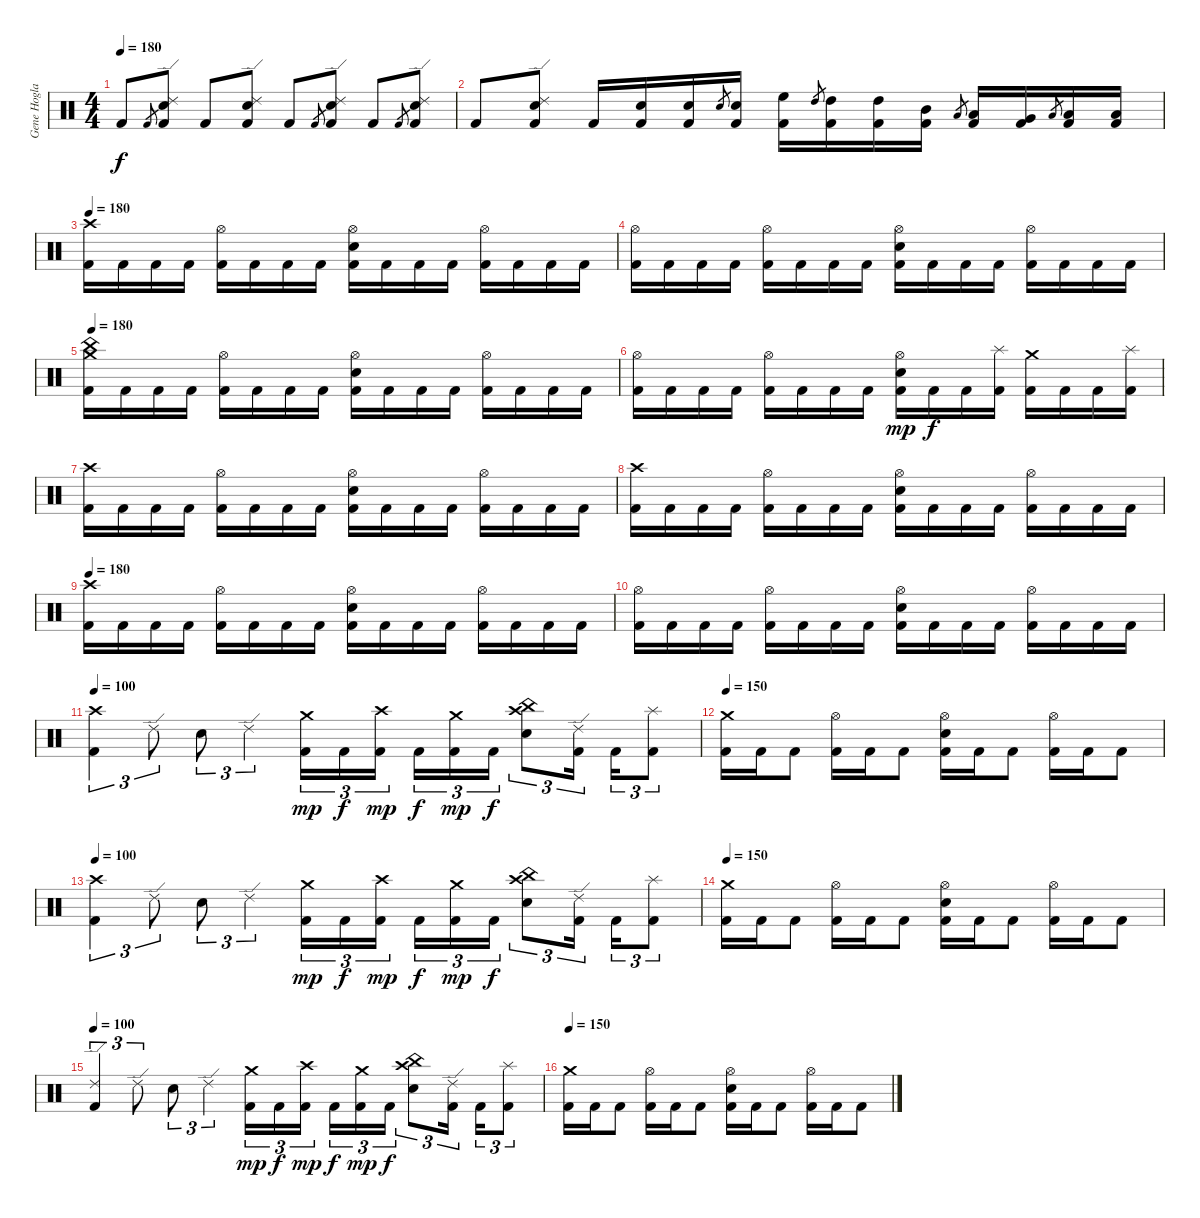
\track ("Gene Hoglan" "Gene Hogla") {instrument percussion}
\staff {score}
\articulation defaults
\ts (4 4)
\tempo 180
\clef neutral
\ks c "Kick (hit) 2".8{dy f} "Kick (hit) 2".8{gr}
("Kick (hit) 2" "Electric Snare (hit)" "Ride (edge) 2").8 "Kick (hit) 2".8 ("Kick (hit) 2" "Electric Snare (hit)" "Ride (edge) 2").8 "Kick (hit) 2".8 "Kick (hit) 2".8{gr} ("Kick (hit) 2" "Electric Snare (hit)" "Ride (edge) 2").8 "Kick (hit) 2".8 "Kick (hit) 2".8{gr} ("Kick (hit) 2" "Electric Snare (hit)" "Ride (edge) 2").8 |
"Kick (hit) 2".8 ("Kick (hit) 2" "Electric Snare (hit)" "Ride (edge) 2").8 "Kick (hit) 2".16 ("Kick (hit) 2" "Electric Snare (hit)").16 ("Kick (hit) 2" "Electric Snare (hit)").16 "Electric Snare (hit)".8{gr} ("Kick (hit) 2" "Electric Snare (hit)").16 ("Kick (hit) 2" "High Floor Tom (hit)").16 "High Tom (hit)".8{gr} ("Kick (hit) 2" "High Tom (hit)").16 ("Kick (hit) 2" "High Tom (hit)").16 ("Kick (hit) 2" "Mid Tom (hit)").16 "Low Tom (hit)".8{gr} ("Kick (hit) 2" "Low Tom (hit)").16 ("Kick (hit) 2" "Very Low Tom (hit)").16 "Low Floor Tom (hit)".8{gr} ("Kick (hit) 2" "Low Floor Tom (hit)").16 ("Kick (hit) 2" "Low Floor Tom (hit)").16 |
\tempo 180
("Kick (hit) 2" "Crash high (hit)").16 "Kick (hit) 2".16 "Kick (hit) 2".16 "Kick (hit) 2".16 ("Kick (hit) 2" "Hi-Hat (open)").16 "Kick (hit) 2".16 "Kick (hit) 2".16 "Kick (hit) 2".16 ("Kick (hit) 2" "Electric Snare (hit)" "Hi-Hat (open)").16 "Kick (hit) 2".16 "Kick (hit) 2".16 "Kick (hit) 2".16 ("Kick (hit) 2" "Hi-Hat (open)").16 "Kick (hit) 2".16 "Kick (hit) 2".16 "Kick (hit) 2".16 |
("Kick (hit) 2" "Hi-Hat (open)").16 "Kick (hit) 2".16 "Kick (hit) 2".16 "Kick (hit) 2".16 ("Kick (hit) 2" "Hi-Hat (open)").16 "Kick (hit) 2".16 "Kick (hit) 2".16 "Kick (hit) 2".16 ("Kick (hit) 2" "Electric Snare (hit)" "Hi-Hat (open)").16 "Kick (hit) 2".16 "Kick (hit) 2".16 "Kick (hit) 2".16 ("Kick (hit) 2" "Hi-Hat (open)").16 "Kick (hit) 2".16 "Kick (hit) 2".16 "Kick (hit) 2".16 |
\tempo 180
("Kick (hit) 2" "Crash medium (hit)" "China (hit)").16 "Kick (hit) 2".16 "Kick (hit) 2".16 "Kick (hit) 2".16 ("Kick (hit) 2" "Hi-Hat (open)").16 "Kick (hit) 2".16 "Kick (hit) 2".16 "Kick (hit) 2".16 ("Kick (hit) 2" "Electric Snare (hit)" "Hi-Hat (open)").16 "Kick (hit) 2".16 "Kick (hit) 2".16 "Kick (hit) 2".16 ("Kick (hit) 2" "Hi-Hat (open)").16 "Kick (hit) 2".16 "Kick (hit) 2".16 "Kick (hit) 2".16 |
("Kick (hit) 2" "Hi-Hat (open)").16 "Kick (hit) 2".16 "Kick (hit) 2".16 "Kick (hit) 2".16 ("Kick (hit) 2" "Hi-Hat (open)").16 "Kick (hit) 2".16 "Kick (hit) 2".16 "Kick (hit) 2".16 ("Kick (hit) 2" "Electric Snare (hit)" "Hi-Hat (open)").16{dy mp} "Kick (hit) 2".16{dy f} "Kick (hit) 2".16 ("Kick (hit) 2" "Splash (hit)").16 ("Kick (hit) 2" "Crash medium (hit)").16 "Kick (hit) 2".16 "Kick (hit) 2".16 ("Kick (hit) 2" "Splash (hit)").16 |
("Kick (hit) 2" "Crash high (hit)").16 "Kick (hit) 2".16 "Kick (hit) 2".16 "Kick (hit) 2".16 ("Kick (hit) 2" "Hi-Hat (open)").16 "Kick (hit) 2".16 "Kick (hit) 2".16 "Kick (hit) 2".16 ("Kick (hit) 2" "Electric Snare (hit)" "Hi-Hat (open)").16 "Kick (hit) 2".16 "Kick (hit) 2".16 "Kick (hit) 2".16 ("Kick (hit) 2" "Hi-Hat (open)").16 "Kick (hit) 2".16 "Kick (hit) 2".16 "Kick (hit) 2".16 |
("Kick (hit) 2" "Crash high (hit)").16 "Kick (hit) 2".16 "Kick (hit) 2".16 "Kick (hit) 2".16 ("Kick (hit) 2" "Hi-Hat (open)").16 "Kick (hit) 2".16 "Kick (hit) 2".16 "Kick (hit) 2".16 ("Kick (hit) 2" "Electric Snare (hit)" "Hi-Hat (open)").16 "Kick (hit) 2".16 "Kick (hit) 2".16 "Kick (hit) 2".16 ("Kick (hit) 2" "Hi-Hat (open)").16 "Kick (hit) 2".16 "Kick (hit) 2".16 "Kick (hit) 2".16 |
\tempo 180
("Kick (hit) 2" "Crash high (hit)").16 "Kick (hit) 2".16 "Kick (hit) 2".16 "Kick (hit) 2".16 ("Kick (hit) 2" "Hi-Hat (open)").16 "Kick (hit) 2".16 "Kick (hit) 2".16 "Kick (hit) 2".16 ("Kick (hit) 2" "Electric Snare (hit)" "Hi-Hat (open)").16 "Kick (hit) 2".16 "Kick (hit) 2".16 "Kick (hit) 2".16 ("Kick (hit) 2" "Hi-Hat (open)").16 "Kick (hit) 2".16 "Kick (hit) 2".16 "Kick (hit) 2".16 |
("Kick (hit) 2" "Hi-Hat (open)").16 "Kick (hit) 2".16 "Kick (hit) 2".16 "Kick (hit) 2".16 ("Kick (hit) 2" "Hi-Hat (open)").16 "Kick (hit) 2".16 "Kick (hit) 2".16 "Kick (hit) 2".16 ("Kick (hit) 2" "Electric Snare (hit)" "Hi-Hat (open)").16 "Kick (hit) 2".16 "Kick (hit) 2".16 "Kick (hit) 2".16 ("Kick (hit) 2" "Hi-Hat (open)").16 "Kick (hit) 2".16 "Kick (hit) 2".16 "Kick (hit) 2".16 |
\tempo 100
("Kick (hit) 2" "Crash high (hit)").4{tu (3 2)} "Ride (edge) 2".8{tu (3 2)} "Electric Snare (hit)".8{tu (3 2)} "Ride (edge) 2".4{tu (3 2)} ("Kick (hit) 2" "Crash medium (hit)").16{tu (3 2) dy mp} "Kick (hit) 2".16{tu (3 2) dy f} ("Kick (hit) 2" "Crash high (hit)").16{tu (3 2) dy mp} "Kick (hit) 2".16{tu (3 2) dy f} ("Kick (hit) 2" "Crash medium (hit)").16{tu (3 2) dy mp} "Kick (hit) 2".16{tu (3 2) dy f} ("Electric Snare (hit)" "Crash high (hit)" "China (hit)").8{tu (3 2)} ("Kick (hit) 2" "Ride (edge) 2").16{tu (3 2)} "Kick (hit) 2".16{tu (3 2)} ("Kick (hit) 2" "Splash (hit)").8{tu (3 2)} |
\tempo 150
("Kick (hit) 2" "Crash medium (hit)").16 "Kick (hit) 2".16 "Kick (hit) 2".8 ("Kick (hit) 2" "Hi-Hat (open)").16 "Kick (hit) 2".16 "Kick (hit) 2".8 ("Kick (hit) 2" "Electric Snare (hit)" "Hi-Hat (open)").16 "Kick (hit) 2".16 "Kick (hit) 2".8 ("Kick (hit) 2" "Hi-Hat (open)").16 "Kick (hit) 2".16 "Kick (hit) 2".8 |
\tempo 100
("Kick (hit) 2" "Crash high (hit)").4{tu (3 2)} "Ride (edge) 2".8{tu (3 2)} "Electric Snare (hit)".8{tu (3 2)} "Ride (edge) 2".4{tu (3 2)} ("Kick (hit) 2" "Crash medium (hit)").16{tu (3 2) dy mp} "Kick (hit) 2".16{tu (3 2) dy f} ("Kick (hit) 2" "Crash high (hit)").16{tu (3 2) dy mp} "Kick (hit) 2".16{tu (3 2) dy f} ("Kick (hit) 2" "Crash medium (hit)").16{tu (3 2) dy mp} "Kick (hit) 2".16{tu (3 2) dy f} ("Electric Snare (hit)" "Crash high (hit)" "China (hit)").8{tu (3 2)} ("Kick (hit) 2" "Ride (edge) 2").16{tu (3 2)} "Kick (hit) 2".16{tu (3 2)} ("Kick (hit) 2" "Splash (hit)").8{tu (3 2)} |
\tempo 150
("Kick (hit) 2" "Crash medium (hit)").16 "Kick (hit) 2".16 "Kick (hit) 2".8 ("Kick (hit) 2" "Hi-Hat (open)").16 "Kick (hit) 2".16 "Kick (hit) 2".8 ("Kick (hit) 2" "Electric Snare (hit)" "Hi-Hat (open)").16 "Kick (hit) 2".16 "Kick (hit) 2".8 ("Kick (hit) 2" "Hi-Hat (open)").16 "Kick (hit) 2".16 "Kick (hit) 2".8 |
\tempo 100
("Kick (hit) 2" "Ride (edge) 2").4{tu (3 2)} "Ride (edge) 2".8{tu (3 2)} "Electric Snare (hit)".8{tu (3 2)} "Ride (edge) 2".4{tu (3 2)} ("Kick (hit) 2" "Crash medium (hit)").16{tu (3 2) dy mp} "Kick (hit) 2".16{tu (3 2) dy f} ("Kick (hit) 2" "Crash high (hit)").16{tu (3 2) dy mp} "Kick (hit) 2".16{tu (3 2) dy f} ("Kick (hit) 2" "Crash medium (hit)").16{tu (3 2) dy mp} "Kick (hit) 2".16{tu (3 2) dy f} ("Electric Snare (hit)" "Crash high (hit)" "China (hit)").8{tu (3 2)} ("Kick (hit) 2" "Ride (edge) 2").16{tu (3 2)} "Kick (hit) 2".16{tu (3 2)} ("Kick (hit) 2" "Splash (hit)").8{tu (3 2)} |
\tempo 150
("Kick (hit) 2" "Crash medium (hit)").16 "Kick (hit) 2".16 "Kick (hit) 2".8 ("Kick (hit) 2" "Hi-Hat (open)").16 "Kick (hit) 2".16 "Kick (hit) 2".8 ("Kick (hit) 2" "Electric Snare (hit)" "Hi-Hat (open)").16 "Kick (hit) 2".16 "Kick (hit) 2".8 ("Kick (hit) 2" "Hi-Hat (open)").16 "Kick (hit) 2".16 "Kick (hit) 2".8
